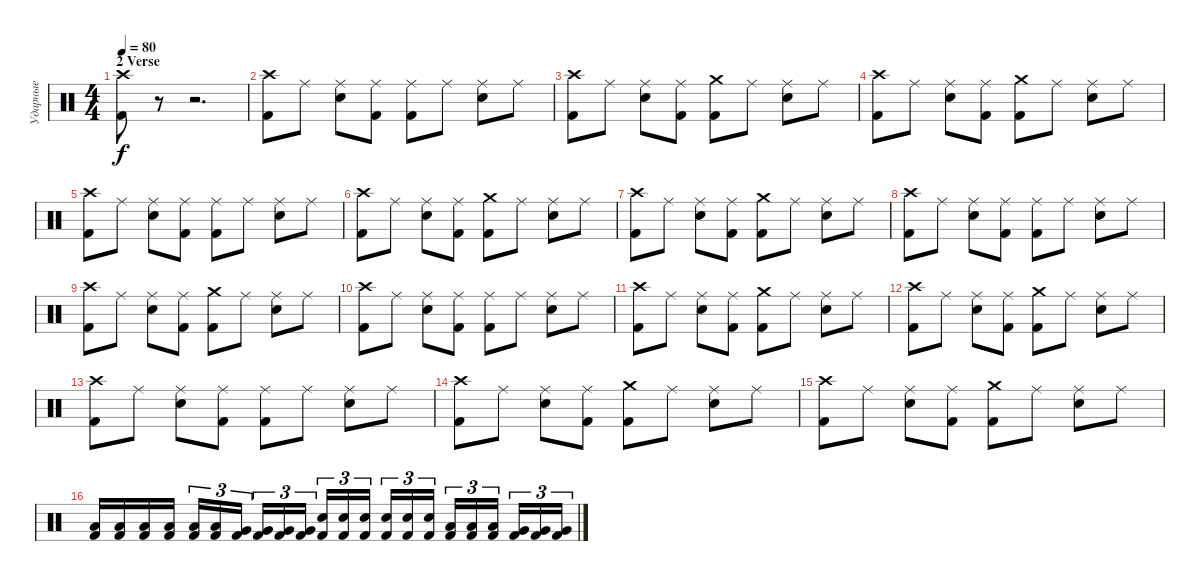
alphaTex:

\track ("Ударные" "Ударные") {instrument percussion}
\staff {score}
\articulation defaults
\ts (4 4)
\section ("" "2 Verse")
\tempo 80
\clef neutral
\ks c
("Crash high (hit)" "Kick (hit) 2").8{dy f} r.8 r.2{d} |
("Crash high (hit)" "Kick (hit) 2").8 "Ride (middle)".8 ("Ride (middle)" "Electric Snare (hit)").8 ("Ride (middle)" "Kick (hit) 2").8 ("Ride (middle)" "Kick (hit) 2").8 "Ride (middle)".8 ("Ride (middle)" "Electric Snare (hit)").8 "Ride (middle)".8 |
("Crash high (hit)" "Kick (hit) 2").8 "Ride (middle)".8 ("Ride (middle)" "Electric Snare (hit)").8 ("Ride (middle)" "Kick (hit) 2").8 ("Crash medium (hit)" "Kick (hit) 2").8 "Ride (middle)".8 ("Ride (middle)" "Electric Snare (hit)").8 "Ride (middle)".8 |
("Crash high (hit)" "Kick (hit) 2").8 "Ride (middle)".8 ("Ride (middle)" "Electric Snare (hit)").8 ("Ride (middle)" "Kick (hit) 2").8 ("Crash medium (hit)" "Kick (hit) 2").8 "Ride (middle)".8 ("Ride (middle)" "Electric Snare (hit)").8 "Ride (middle)".8 |
("Crash high (hit)" "Kick (hit) 2").8 "Ride (middle)".8 ("Ride (middle)" "Electric Snare (hit)").8 ("Ride (middle)" "Kick (hit) 2").8 ("Ride (middle)" "Kick (hit) 2").8 "Ride (middle)".8 ("Ride (middle)" "Electric Snare (hit)").8 "Ride (middle)".8 |
("Crash high (hit)" "Kick (hit) 2").8 "Ride (middle)".8 ("Ride (middle)" "Electric Snare (hit)").8 ("Ride (middle)" "Kick (hit) 2").8 ("Crash medium (hit)" "Kick (hit) 2").8 "Ride (middle)".8 ("Ride (middle)" "Electric Snare (hit)").8 "Ride (middle)".8 |
("Crash high (hit)" "Kick (hit) 2").8 "Ride (middle)".8 ("Ride (middle)" "Electric Snare (hit)").8 ("Ride (middle)" "Kick (hit) 2").8 ("Crash medium (hit)" "Kick (hit) 2").8 "Ride (middle)".8 ("Ride (middle)" "Electric Snare (hit)").8 "Ride (middle)".8 |
("Crash high (hit)" "Kick (hit) 2").8 "Ride (middle)".8 ("Ride (middle)" "Electric Snare (hit)").8 ("Ride (middle)" "Kick (hit) 2").8 ("Ride (middle)" "Kick (hit) 2").8 "Ride (middle)".8 ("Ride (middle)" "Electric Snare (hit)").8 "Ride (middle)".8 |
("Crash high (hit)" "Kick (hit) 2").8 "Ride (middle)".8 ("Ride (middle)" "Electric Snare (hit)").8 ("Ride (middle)" "Kick (hit) 2").8 ("Crash medium (hit)" "Kick (hit) 2").8 "Ride (middle)".8 ("Ride (middle)" "Electric Snare (hit)").8 "Ride (middle)".8 |
("Crash high (hit)" "Kick (hit) 2").8 "Ride (middle)".8 ("Ride (middle)" "Electric Snare (hit)").8 ("Ride (middle)" "Kick (hit) 2").8 ("Ride (middle)" "Kick (hit) 2").8 "Ride (middle)".8 ("Ride (middle)" "Electric Snare (hit)").8 "Ride (middle)".8 |
("Crash high (hit)" "Kick (hit) 2").8 "Ride (middle)".8 ("Ride (middle)" "Electric Snare (hit)").8 ("Ride (middle)" "Kick (hit) 2").8 ("Crash medium (hit)" "Kick (hit) 2").8 "Ride (middle)".8 ("Ride (middle)" "Electric Snare (hit)").8 "Ride (middle)".8 |
("Crash high (hit)" "Kick (hit) 2").8 "Ride (middle)".8 ("Ride (middle)" "Electric Snare (hit)").8 ("Ride (middle)" "Kick (hit) 2").8 ("Crash medium (hit)" "Kick (hit) 2").8 "Ride (middle)".8 ("Ride (middle)" "Electric Snare (hit)").8 "Ride (middle)".8 |
("Crash high (hit)" "Kick (hit) 2").8 "Ride (middle)".8 ("Ride (middle)" "Electric Snare (hit)").8 ("Ride (middle)" "Kick (hit) 2").8 ("Ride (middle)" "Kick (hit) 2").8 "Ride (middle)".8 ("Ride (middle)" "Electric Snare (hit)").8 "Ride (middle)".8 |
("Crash high (hit)" "Kick (hit) 2").8 "Ride (middle)".8 ("Ride (middle)" "Electric Snare (hit)").8 ("Ride (middle)" "Kick (hit) 2").8 ("Crash medium (hit)" "Kick (hit) 2").8 "Ride (middle)".8 ("Ride (middle)" "Electric Snare (hit)").8 "Ride (middle)".8 |
("Crash high (hit)" "Kick (hit) 2").8 "Ride (middle)".8 ("Ride (middle)" "Electric Snare (hit)").8 ("Ride (middle)" "Kick (hit) 2").8 ("Crash medium (hit)" "Kick (hit) 2").8 "Ride (middle)".8 ("Ride (middle)" "Electric Snare (hit)").8 "Ride (middle)".8 |
("Low Floor Tom (hit)" "Kick (hit) 2").16 ("Low Floor Tom (hit)" "Kick (hit) 2").16 ("Low Floor Tom (hit)" "Kick (hit) 2").16 ("Low Floor Tom (hit)" "Kick (hit) 2").16 ("Low Tom (hit)" "Kick (hit) 2").16{tu (3 2)} ("Low Tom (hit)" "Kick (hit) 2").16{tu (3 2)} ("Very Low Tom (hit)" "Kick (hit) 2").16{tu (3 2)} ("Very Low Tom (hit)" "Kick (hit) 2").16{tu (3 2)} ("Very Low Tom (hit)" "Kick (hit) 2").16{tu (3 2)} ("Very Low Tom (hit)" "Kick (hit) 2").16{tu (3 2)} ("Electric Snare (hit)" "Kick (hit) 2").16{tu (3 2)} ("Electric Snare (hit)" "Kick (hit) 2").16{tu (3 2)} ("Electric Snare (hit)" "Kick (hit) 2").16{tu (3 2)} ("Electric Snare (hit)" "Kick (hit) 2").16{tu (3 2)} ("Electric Snare (hit)" "Kick (hit) 2").16{tu (3 2)} ("Electric Snare (hit)" "Kick (hit) 2").16{tu (3 2)} ("Low Tom (hit)" "Kick (hit) 2").16{tu (3 2)} ("Low Tom (hit)" "Kick (hit) 2").16{tu (3 2)} ("Low Tom (hit)" "Kick (hit) 2").16{tu (3 2)} ("Very Low Tom (hit)" "Kick (hit) 2").16{tu (3 2)} ("Very Low Tom (hit)" "Kick (hit) 2").16{tu (3 2)} ("Very Low Tom (hit)" "Kick (hit) 2").16{tu (3 2)}
